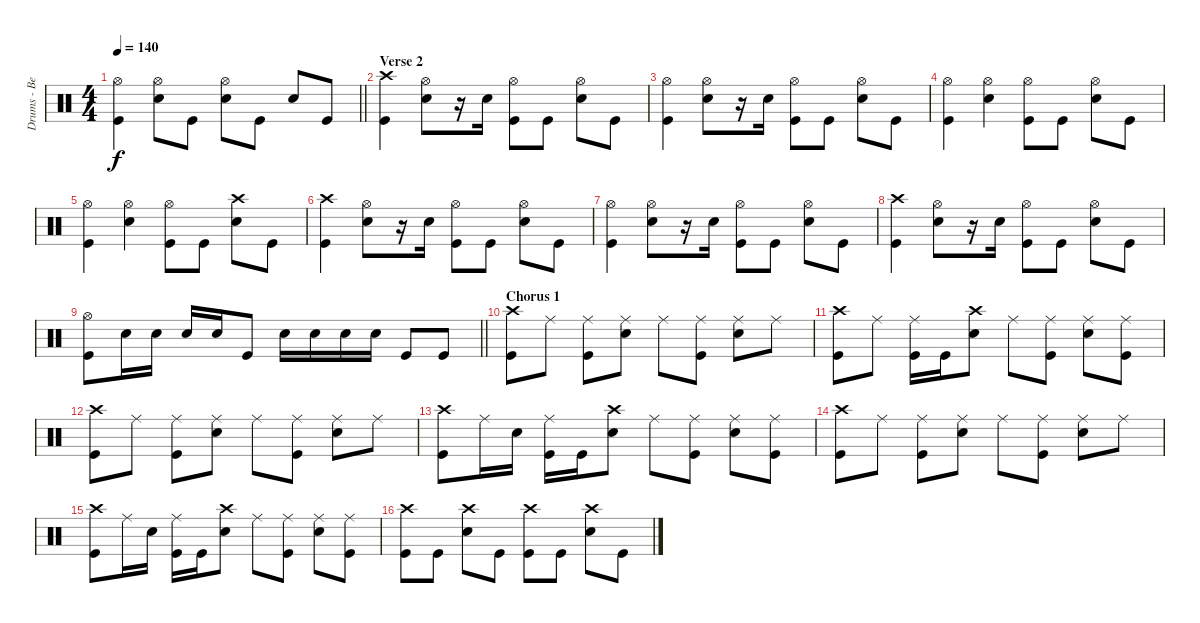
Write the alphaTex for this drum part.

\track ("Drums - Ben Johnston" "Drums - Be") {instrument percussion}
\staff {score}
\articulation defaults
\ts (4 4)
\tempo 140
\clef neutral
\barLineRight lightlight
\ks c
("Hi-Hat (open)" "Kick (hit)").4{dy f} ("Hi-Hat (open)" "Snare (hit) 2").8 "Kick (hit)".8 ("Hi-Hat (open)" "Snare (hit) 2").8 "Kick (hit)".8 "Snare (hit) 2".8 "Kick (hit)".8 |
\section ("" "Verse 2")
("Crash high (hit)" "Kick (hit)").4 ("Hi-Hat (open)" "Snare (hit) 2").8 r.16 "Snare (hit) 2".16 ("Hi-Hat (open)" "Kick (hit)").8 "Kick (hit)".8 ("Hi-Hat (open)" "Snare (hit) 2").8 "Kick (hit)".8 |
("Hi-Hat (open)" "Kick (hit)").4 ("Hi-Hat (open)" "Snare (hit) 2").8 r.16 "Snare (hit) 2".16 ("Hi-Hat (open)" "Kick (hit)").8 "Kick (hit)".8 ("Hi-Hat (open)" "Snare (hit) 2").8 "Kick (hit)".8 |
("Hi-Hat (open)" "Kick (hit)").4 ("Hi-Hat (open)" "Snare (hit) 2").4 ("Hi-Hat (open)" "Kick (hit)").8 "Kick (hit)".8 ("Hi-Hat (open)" "Snare (hit) 2").8 "Kick (hit)".8 |
("Hi-Hat (open)" "Kick (hit)").4 ("Hi-Hat (open)" "Snare (hit) 2").4 ("Hi-Hat (open)" "Kick (hit)").8 "Kick (hit)".8 ("Crash high (hit)" "Snare (hit) 2").8 "Kick (hit)".8 |
("Crash high (hit)" "Kick (hit)").4 ("Hi-Hat (open)" "Snare (hit) 2").8 r.16 "Snare (hit) 2".16 ("Hi-Hat (open)" "Kick (hit)").8 "Kick (hit)".8 ("Hi-Hat (open)" "Snare (hit) 2").8 "Kick (hit)".8 |
("Hi-Hat (open)" "Kick (hit)").4 ("Hi-Hat (open)" "Snare (hit) 2").8 r.16 "Snare (hit) 2".16 ("Hi-Hat (open)" "Kick (hit)").8 "Kick (hit)".8 ("Hi-Hat (open)" "Snare (hit) 2").8 "Kick (hit)".8 |
("Crash high (hit)" "Kick (hit)").4 ("Hi-Hat (open)" "Snare (hit) 2").8 r.16 "Snare (hit) 2".16 ("Hi-Hat (open)" "Kick (hit)").8 "Kick (hit)".8 ("Hi-Hat (open)" "Snare (hit) 2").8 "Kick (hit)".8 |
\barLineRight lightlight
("Hi-Hat (open)" "Kick (hit)").8 "Snare (hit) 2".16 "Snare (hit) 2".16 "Snare (hit) 2".16 "Snare (hit) 2".16 "Kick (hit)".8 "Snare (hit) 2".16 "Snare (hit) 2".16 "Snare (hit) 2".16 "Snare (hit) 2".16 "Kick (hit)".8 "Kick (hit)".8 |
\section ("" "Chorus 1")
("Crash high (hit)" "Kick (hit)").8 "Ride (middle)".8 ("Ride (middle)" "Kick (hit)").8 ("Ride (middle)" "Snare (hit) 2").8 "Ride (middle)".8 ("Ride (middle)" "Kick (hit)").8 ("Ride (middle)" "Snare (hit) 2").8 "Ride (middle)".8 |
("Crash high (hit)" "Kick (hit)").8 "Ride (middle)".8 ("Ride (middle)" "Kick (hit)").16 "Kick (hit)".16 ("Crash high (hit)" "Snare (hit) 2").8 "Ride (middle)".8 ("Ride (middle)" "Kick (hit)").8 ("Ride (middle)" "Snare (hit) 2").8 ("Ride (middle)" "Kick (hit)").8 |
("Crash high (hit)" "Kick (hit)").8 "Ride (middle)".8 ("Ride (middle)" "Kick (hit)").8 ("Ride (middle)" "Snare (hit) 2").8 "Ride (middle)".8 ("Ride (middle)" "Kick (hit)").8 ("Ride (middle)" "Snare (hit) 2").8 "Ride (middle)".8 |
("Crash high (hit)" "Kick (hit)").8 "Ride (middle)".16 "Snare (hit) 2".16 ("Ride (middle)" "Kick (hit)").16 "Kick (hit)".16 ("Crash high (hit)" "Snare (hit) 2").8 "Ride (middle)".8 ("Ride (middle)" "Kick (hit)").8 ("Ride (middle)" "Snare (hit) 2").8 ("Ride (middle)" "Kick (hit)").8 |
("Crash high (hit)" "Kick (hit)").8 "Ride (middle)".8 ("Ride (middle)" "Kick (hit)").8 ("Ride (middle)" "Snare (hit) 2").8 "Ride (middle)".8 ("Ride (middle)" "Kick (hit)").8 ("Ride (middle)" "Snare (hit) 2").8 "Ride (middle)".8 |
("Crash high (hit)" "Kick (hit)").8 "Ride (middle)".16 "Snare (hit) 2".16 ("Ride (middle)" "Kick (hit)").16 "Kick (hit)".16 ("Crash high (hit)" "Snare (hit) 2").8 "Ride (middle)".8 ("Ride (middle)" "Kick (hit)").8 ("Ride (middle)" "Snare (hit) 2").8 ("Ride (middle)" "Kick (hit)").8 |
("Crash high (hit)" "Kick (hit)").8 "Kick (hit)".8 ("Crash high (hit)" "Snare (hit) 2").8 "Kick (hit)".8 ("Crash high (hit)" "Kick (hit)").8 "Kick (hit)".8 ("Crash high (hit)" "Snare (hit) 2").8 "Kick (hit)".8
